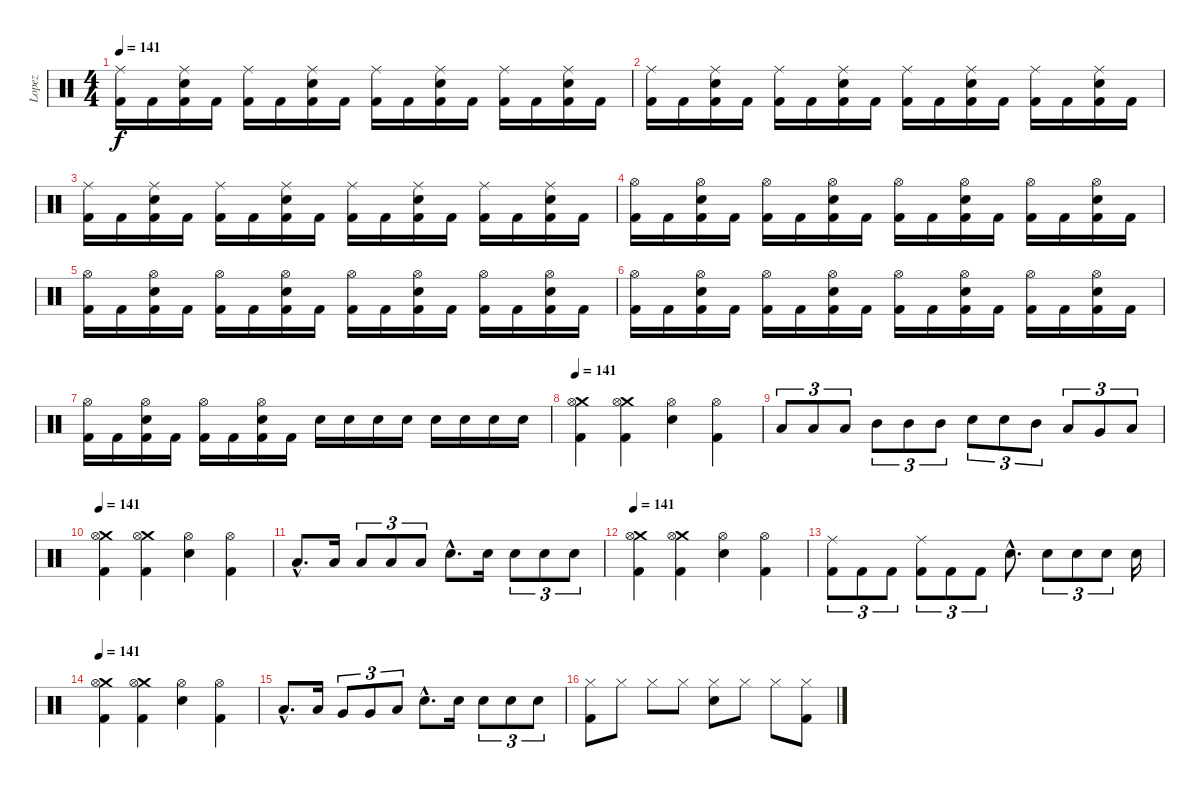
\track ("Lopez" "Lopez") {instrument percussion}
\staff {score}
\articulation defaults
\ts (4 4)
\tempo 141
\clef neutral
\ks c
("Ride (middle)" "Kick (hit) 2").16{dy f} "Kick (hit) 2".16 ("Ride (middle)" "Electric Snare (hit)" "Kick (hit) 2").16 "Kick (hit) 2".16 ("Ride (middle)" "Kick (hit) 2").16 "Kick (hit) 2".16 ("Ride (middle)" "Electric Snare (hit)" "Kick (hit) 2").16 "Kick (hit) 2".16 ("Ride (middle)" "Kick (hit) 2").16 "Kick (hit) 2".16 ("Ride (middle)" "Electric Snare (hit)" "Kick (hit) 2").16 "Kick (hit) 2".16 ("Ride (middle)" "Kick (hit) 2").16 "Kick (hit) 2".16 ("Ride (middle)" "Electric Snare (hit)" "Kick (hit) 2").16 "Kick (hit) 2".16 |
("Ride (middle)" "Kick (hit) 2").16 "Kick (hit) 2".16 ("Ride (middle)" "Electric Snare (hit)" "Kick (hit) 2").16 "Kick (hit) 2".16 ("Ride (middle)" "Kick (hit) 2").16 "Kick (hit) 2".16 ("Ride (middle)" "Electric Snare (hit)" "Kick (hit) 2").16 "Kick (hit) 2".16 ("Ride (middle)" "Kick (hit) 2").16 "Kick (hit) 2".16 ("Ride (middle)" "Electric Snare (hit)" "Kick (hit) 2").16 "Kick (hit) 2".16 ("Ride (middle)" "Kick (hit) 2").16 "Kick (hit) 2".16 ("Ride (middle)" "Electric Snare (hit)" "Kick (hit) 2").16 "Kick (hit) 2".16 |
("Ride (middle)" "Kick (hit) 2").16 "Kick (hit) 2".16 ("Ride (middle)" "Electric Snare (hit)" "Kick (hit) 2").16 "Kick (hit) 2".16 ("Ride (middle)" "Kick (hit) 2").16 "Kick (hit) 2".16 ("Ride (middle)" "Electric Snare (hit)" "Kick (hit) 2").16 "Kick (hit) 2".16 ("Ride (middle)" "Kick (hit) 2").16 "Kick (hit) 2".16 ("Ride (middle)" "Electric Snare (hit)" "Kick (hit) 2").16 "Kick (hit) 2".16 ("Ride (middle)" "Kick (hit) 2").16 "Kick (hit) 2".16 ("Ride (middle)" "Electric Snare (hit)" "Kick (hit) 2").16 "Kick (hit) 2".16 |
("Hi-Hat (open)" "Kick (hit) 2").16 "Kick (hit) 2".16 ("Hi-Hat (open)" "Electric Snare (hit)" "Kick (hit) 2").16 "Kick (hit) 2".16 ("Hi-Hat (open)" "Kick (hit) 2").16 "Kick (hit) 2".16 ("Hi-Hat (open)" "Electric Snare (hit)" "Kick (hit) 2").16 "Kick (hit) 2".16 ("Hi-Hat (open)" "Kick (hit) 2").16 "Kick (hit) 2".16 ("Hi-Hat (open)" "Electric Snare (hit)" "Kick (hit) 2").16 "Kick (hit) 2".16 ("Hi-Hat (open)" "Kick (hit) 2").16 "Kick (hit) 2".16 ("Hi-Hat (open)" "Electric Snare (hit)" "Kick (hit) 2").16 "Kick (hit) 2".16 |
("Hi-Hat (open)" "Kick (hit) 2").16 "Kick (hit) 2".16 ("Hi-Hat (open)" "Electric Snare (hit)" "Kick (hit) 2").16 "Kick (hit) 2".16 ("Hi-Hat (open)" "Kick (hit) 2").16 "Kick (hit) 2".16 ("Hi-Hat (open)" "Electric Snare (hit)" "Kick (hit) 2").16 "Kick (hit) 2".16 ("Hi-Hat (open)" "Kick (hit) 2").16 "Kick (hit) 2".16 ("Hi-Hat (open)" "Electric Snare (hit)" "Kick (hit) 2").16 "Kick (hit) 2".16 ("Hi-Hat (open)" "Kick (hit) 2").16 "Kick (hit) 2".16 ("Hi-Hat (open)" "Electric Snare (hit)" "Kick (hit) 2").16 "Kick (hit) 2".16 |
("Hi-Hat (open)" "Kick (hit) 2").16 "Kick (hit) 2".16 ("Hi-Hat (open)" "Electric Snare (hit)" "Kick (hit) 2").16 "Kick (hit) 2".16 ("Hi-Hat (open)" "Kick (hit) 2").16 "Kick (hit) 2".16 ("Hi-Hat (open)" "Electric Snare (hit)" "Kick (hit) 2").16 "Kick (hit) 2".16 ("Hi-Hat (open)" "Kick (hit) 2").16 "Kick (hit) 2".16 ("Hi-Hat (open)" "Electric Snare (hit)" "Kick (hit) 2").16 "Kick (hit) 2".16 ("Hi-Hat (open)" "Kick (hit) 2").16 "Kick (hit) 2".16 ("Hi-Hat (open)" "Electric Snare (hit)" "Kick (hit) 2").16 "Kick (hit) 2".16 |
("Hi-Hat (open)" "Kick (hit) 2").16 "Kick (hit) 2".16 ("Hi-Hat (open)" "Electric Snare (hit)" "Kick (hit) 2").16 "Kick (hit) 2".16 ("Hi-Hat (open)" "Kick (hit) 2").16 "Kick (hit) 2".16 ("Hi-Hat (open)" "Electric Snare (hit)" "Kick (hit) 2").16 "Kick (hit) 2".16 "Electric Snare (hit)".16 "Electric Snare (hit)".16 "Electric Snare (hit)".16 "Electric Snare (hit)".16 "Electric Snare (hit)".16 "Electric Snare (hit)".16 "Electric Snare (hit)".16 "Electric Snare (hit)".16 |
\tempo 141
("Crash medium (hit)" "Hi-Hat (open)" "Kick (hit) 2").4 ("Crash medium (hit)" "Hi-Hat (open)" "Kick (hit) 2").4 ("Hi-Hat (open)" "Electric Snare (hit)").4 ("Hi-Hat (open)" "Kick (hit) 2").4 |
"Low Tom (hit)".8{tu (3 2)} "Low Tom (hit)".8{tu (3 2)} "Low Tom (hit)".8{tu (3 2)} "Mid Tom (hit)".8{tu (3 2)} "Mid Tom (hit)".8{tu (3 2)} "Mid Tom (hit)".8{tu (3 2)} "Electric Snare (hit)".8{tu (3 2)} "Electric Snare (hit)".8{tu (3 2)} "Mid Tom (hit)".8{tu (3 2)} "Low Tom (hit)".8{tu (3 2)} "Very Low Tom (hit)".8{tu (3 2)} "Low Floor Tom (hit)".8{tu (3 2)} |
\tempo 141
("Crash medium (hit)" "Hi-Hat (open)" "Kick (hit) 2").4 ("Crash medium (hit)" "Hi-Hat (open)" "Kick (hit) 2").4 ("Hi-Hat (open)" "Electric Snare (hit)").4 ("Hi-Hat (open)" "Kick (hit) 2").4 |
"Low Tom (hit)"{hac}.8{d} "Low Tom (hit)".16 "Low Tom (hit)".8{tu (3 2)} "Low Tom (hit)".8{tu (3 2)} "Low Tom (hit)".8{tu (3 2)} "Electric Snare (hit)"{hac}.8{d} "Electric Snare (hit)".16 "Electric Snare (hit)".8{tu (3 2)} "Electric Snare (hit)".8{tu (3 2)} "Electric Snare (hit)".8{tu (3 2)} |
\tempo 141
("Crash medium (hit)" "Hi-Hat (open)" "Kick (hit) 2").4 ("Crash medium (hit)" "Hi-Hat (open)" "Kick (hit) 2").4 ("Hi-Hat (open)" "Electric Snare (hit)").4 ("Hi-Hat (open)" "Kick (hit) 2").4 |
("Ride (middle)" "Kick (hit) 2").8{tu (3 2)} "Kick (hit) 2".8{tu (3 2)} "Kick (hit) 2".8{tu (3 2)} ("Ride (middle)" "Kick (hit) 2").8{tu (3 2)} "Kick (hit) 2".8{tu (3 2)} "Kick (hit) 2".8{tu (3 2)} "Electric Snare (hit)"{hac}.8{d} "Electric Snare (hit)".8{tu (3 2)} "Electric Snare (hit)".8{tu (3 2)} "Electric Snare (hit)".8{tu (3 2)} "Electric Snare (hit)".16 |
\tempo 141
("Crash medium (hit)" "Hi-Hat (open)" "Kick (hit) 2").4 ("Crash medium (hit)" "Hi-Hat (open)" "Kick (hit) 2").4 ("Hi-Hat (open)" "Electric Snare (hit)").4 ("Hi-Hat (open)" "Kick (hit) 2").4 |
"Low Tom (hit)"{hac}.8{d} "Low Tom (hit)".16 "Very Low Tom (hit)".8{tu (3 2)} "Very Low Tom (hit)".8{tu (3 2)} "Low Floor Tom (hit)".8{tu (3 2)} "Electric Snare (hit)"{hac}.8{d} "Electric Snare (hit)".16 "Electric Snare (hit)".8{tu (3 2)} "Electric Snare (hit)".8{tu (3 2)} "Electric Snare (hit)".8{tu (3 2)} |
("Hi-Hat (closed)" "Kick (hit) 2").8 "Hi-Hat (closed)".8 "Hi-Hat (closed)".8 "Hi-Hat (closed)".8 ("Hi-Hat (closed)" "Electric Snare (hit)").8 "Hi-Hat (closed)".8 "Hi-Hat (closed)".8 ("Hi-Hat (closed)" "Kick (hit) 2").8
